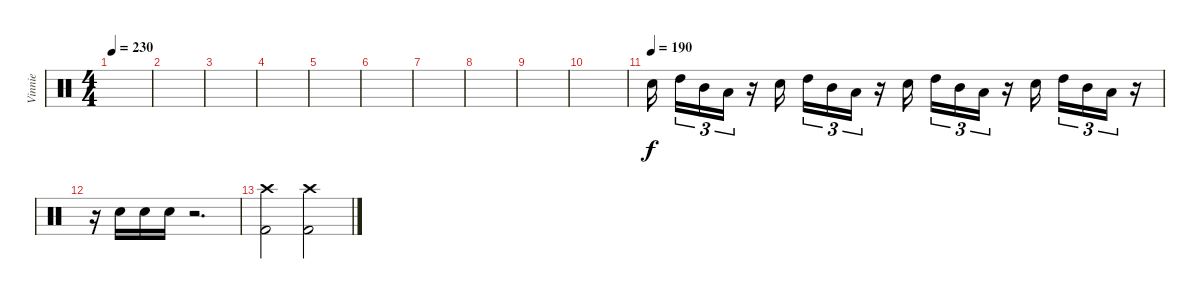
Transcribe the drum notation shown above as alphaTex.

\track ("Vinnie" "Vinnie") {instrument percussion}
\staff {score}
\articulation defaults
\ts (4 4)
\tempo 230
\clef neutral
\ks c
|
|
|
|
|
|
|
|
|
|
\tempo (190)
"Snare (hit) 2".16 "High Tom (hit)".16{tu (3 2)} "Mid Tom (hit)".16{tu (3 2)} "Low Tom (hit)".16{tu (3 2)} r.16 "Snare (hit) 2".16 "High Tom (hit)".16{tu (3 2)} "Mid Tom (hit)".16{tu (3 2)} "Low Tom (hit)".16{tu (3 2)} r.16 "Snare (hit) 2".16 "High Tom (hit)".16{tu (3 2)} "Mid Tom (hit)".16{tu (3 2)} "Low Tom (hit)".16{tu (3 2)} r.16 "Snare (hit) 2".16 "High Tom (hit)".16{tu (3 2)} "Mid Tom (hit)".16{tu (3 2)} "Low Tom (hit)".16{tu (3 2)} r.16 |
r.16 "Snare (hit) 2".16 "Snare (hit) 2".16 "Snare (hit) 2".16 r.2{d} |
("Crash high (hit)" "Kick (hit) 2").2 ("Crash high (hit)" "Kick (hit) 2").2
